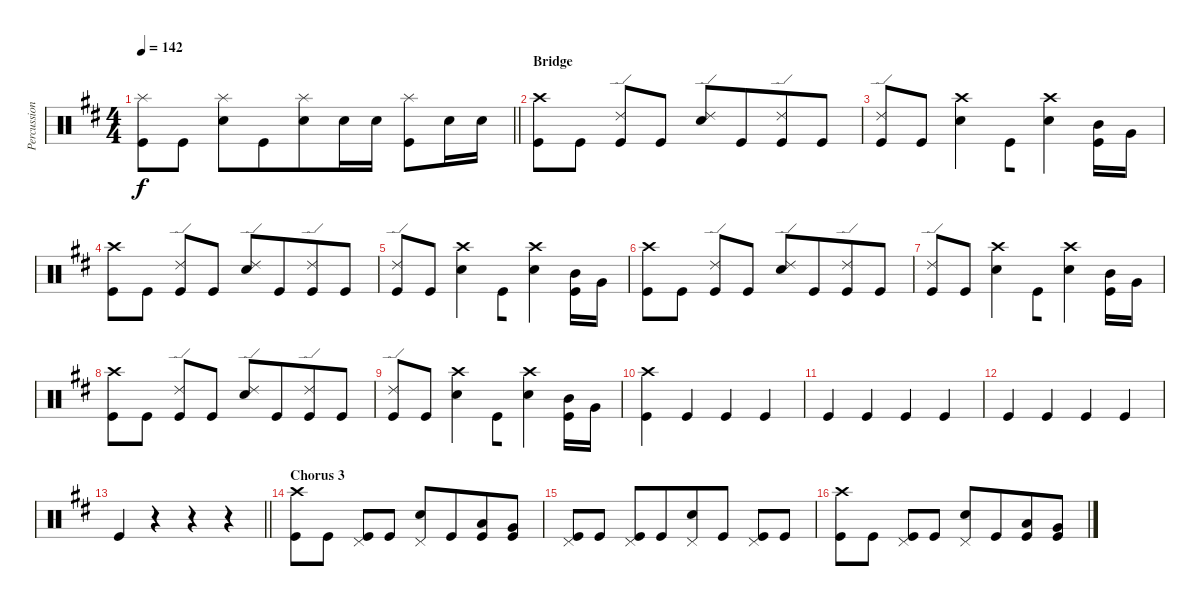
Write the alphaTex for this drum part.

\track ("Percussion" "Percussion") {instrument percussion}
\staff {score}
\articulation defaults
\ts (4 4)
\tempo 142
\clef neutral
\barLineRight lightlight
\ks d
("Kick (hit)" "Splash (hit)").8{dy f} "Kick (hit)".8 ("Snare (hit) 2" "Splash (hit)").8 "Kick (hit)".8{beam merge} ("Snare (hit) 2" "Splash (hit)").8{beam merge} "Snare (hit) 2".16 "Snare (hit) 2".16 ("Kick (hit)" "Splash (hit)").8 "Snare (hit) 2".16 "Snare (hit) 2".16 |
\section ("" "Bridge")
("Kick (hit)" "Crash high (hit)").8{beam merge} "Kick (hit)".8 ("Kick (hit)" "Ride (edge) 2").8{beam merge} "Kick (hit)".8 ("Snare (hit) 2" "Ride (edge) 2").8{beam merge} "Kick (hit)".8{beam merge} ("Kick (hit)" "Ride (edge) 2").8 "Kick (hit)".8 |
("Kick (hit)" "Ride (edge) 2").8 "Kick (hit)".8 ("Snare (hit) 2" "Crash high (hit)").4{beam merge} "Kick (hit)".8{beam merge} ("Snare (hit) 2" "Crash high (hit)").4{beam merge} ("Mid Tom (hit)" "Kick (hit)").16 "Very Low Tom (hit)".16 |
("Kick (hit)" "Crash high (hit)").8{beam merge} "Kick (hit)".8 ("Kick (hit)" "Ride (edge) 2").8{beam merge} "Kick (hit)".8 ("Snare (hit) 2" "Ride (edge) 2").8{beam merge} "Kick (hit)".8{beam merge} ("Kick (hit)" "Ride (edge) 2").8 "Kick (hit)".8 |
("Kick (hit)" "Ride (edge) 2").8 "Kick (hit)".8 ("Snare (hit) 2" "Crash high (hit)").4{beam merge} "Kick (hit)".8{beam merge} ("Snare (hit) 2" "Crash high (hit)").4{beam merge} ("Mid Tom (hit)" "Kick (hit)").16 "Very Low Tom (hit)".16 |
("Kick (hit)" "Crash high (hit)").8{beam merge} "Kick (hit)".8 ("Kick (hit)" "Ride (edge) 2").8{beam merge} "Kick (hit)".8 ("Snare (hit) 2" "Ride (edge) 2").8{beam merge} "Kick (hit)".8{beam merge} ("Kick (hit)" "Ride (edge) 2").8 "Kick (hit)".8 |
("Kick (hit)" "Ride (edge) 2").8 "Kick (hit)".8 ("Snare (hit) 2" "Crash high (hit)").4{beam merge} "Kick (hit)".8{beam merge} ("Snare (hit) 2" "Crash high (hit)").4{beam merge} ("Mid Tom (hit)" "Kick (hit)").16 "Very Low Tom (hit)".16 |
("Kick (hit)" "Crash high (hit)").8{beam merge} "Kick (hit)".8 ("Kick (hit)" "Ride (edge) 2").8{beam merge} "Kick (hit)".8 ("Snare (hit) 2" "Ride (edge) 2").8{beam merge} "Kick (hit)".8{beam merge} ("Kick (hit)" "Ride (edge) 2").8 "Kick (hit)".8 |
("Kick (hit)" "Ride (edge) 2").8 "Kick (hit)".8 ("Snare (hit) 2" "Crash high (hit)").4{beam merge} "Kick (hit)".8{beam merge} ("Snare (hit) 2" "Crash high (hit)").4{beam merge} ("Mid Tom (hit)" "Kick (hit)").16 "Very Low Tom (hit)".16 |
("Kick (hit)" "Crash high (hit)").4 "Kick (hit)".4 "Kick (hit)".4 "Kick (hit)".4 |
"Kick (hit)".4 "Kick (hit)".4 "Kick (hit)".4 "Kick (hit)".4 |
"Kick (hit)".4 "Kick (hit)".4 "Kick (hit)".4 "Kick (hit)".4 |
\barLineRight lightlight "Kick (hit)".4
r.4 r.4 r.4 |
\section ("" "Chorus 3")
("Kick (hit)" "Crash high (hit)").8{beam merge} "Kick (hit)".8 ("Kick (hit)" "Pedal Hi-Hat (hit)").8{beam merge} "Kick (hit)".8 ("Snare (hit) 2" "Pedal Hi-Hat (hit)").8{beam merge} "Kick (hit)".8{beam merge} ("Kick (hit)" "Low Tom (hit)").8 ("Kick (hit)" "Very Low Tom (hit)").8 |
("Kick (hit)" "Pedal Hi-Hat (hit)").8 "Kick (hit)".8 ("Kick (hit)" "Pedal Hi-Hat (hit)").8 "Kick (hit)".8{beam merge} ("Snare (hit) 2" "Pedal Hi-Hat (hit)").8{beam merge} "Kick (hit)".8 ("Kick (hit)" "Pedal Hi-Hat (hit)").8 "Kick (hit)".8 |
("Kick (hit)" "Crash high (hit)").8{beam merge} "Kick (hit)".8 ("Kick (hit)" "Pedal Hi-Hat (hit)").8{beam merge} "Kick (hit)".8 ("Snare (hit) 2" "Pedal Hi-Hat (hit)").8{beam merge} "Kick (hit)".8{beam merge} ("Kick (hit)" "Low Tom (hit)").8 ("Kick (hit)" "Very Low Tom (hit)").8
